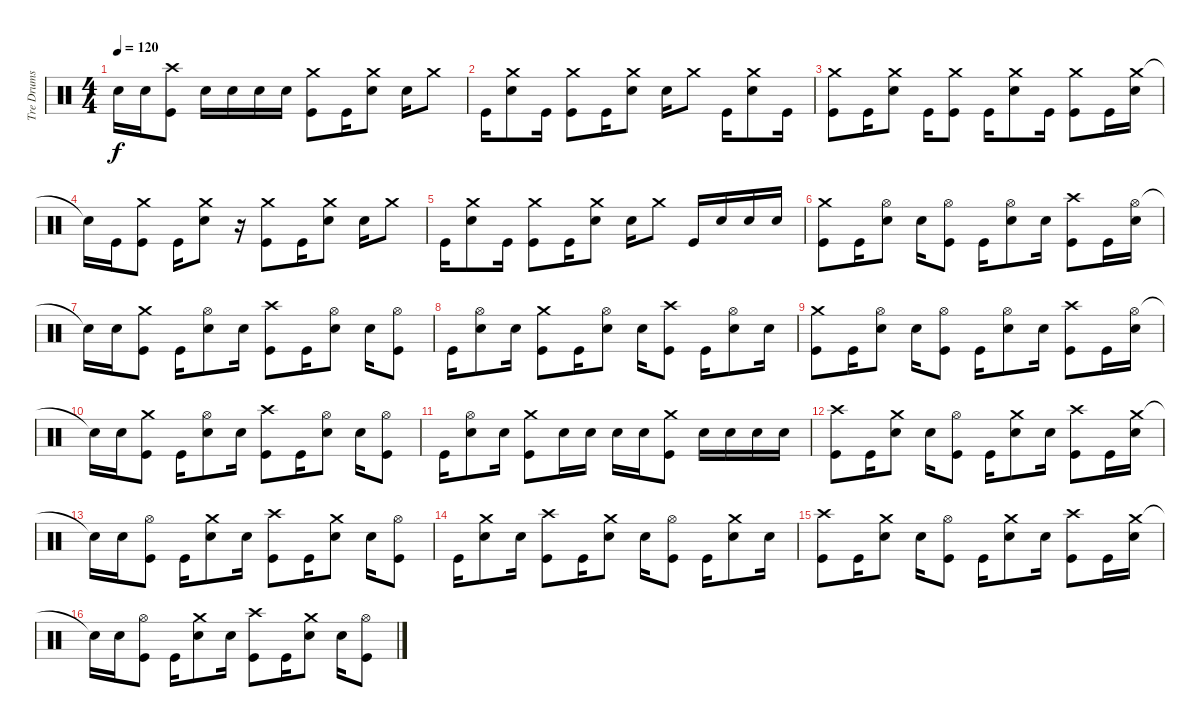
\track ("Tre Drums" "Tre Drums") {instrument percussion}
\staff {score}
\articulation defaults
\ts (4 4)
\tempo 120
\clef neutral
\ks c "Snare (hit)"{t}.16{dy f} "Electric Snare (hit)".16
("Crash high (hit)" "Kick (hit)").8 "Electric Snare (hit)".16 "Electric Snare (hit)".16 "Electric Snare (hit)".16 "Electric Snare (hit)".16 ("Crash medium (hit)" "Kick (hit)").8 "Kick (hit)".16 ("Crash medium (hit)" "Electric Snare (hit)").8 "Electric Snare (hit)".16 "Crash medium (hit)".8 |
"Kick (hit)".16 ("Crash medium (hit)" "Electric Snare (hit)").8 "Kick (hit)".16 ("Crash medium (hit)" "Kick (hit)").8 "Kick (hit)".16 ("Crash medium (hit)" "Electric Snare (hit)").8 "Electric Snare (hit)".16 "Crash medium (hit)".8 "Kick (hit)".16 ("Crash medium (hit)" "Electric Snare (hit)").8 "Kick (hit)".16 |
("Crash medium (hit)" "Kick (hit)").8 "Kick (hit)".16 ("Crash medium (hit)" "Electric Snare (hit)").8 "Kick (hit)".16 ("Crash medium (hit)" "Kick (hit)").8 "Kick (hit)".16 ("Crash medium (hit)" "Electric Snare (hit)").8 "Kick (hit)".16 ("Crash medium (hit)" "Kick (hit)").8 "Kick (hit)".16 ("Crash medium (hit)" "Electric Snare (hit)").16 |
"Snare (hit)"{t}.16 "Kick (hit)".16 ("Crash medium (hit)" "Kick (hit)").8 "Kick (hit)".16 ("Crash medium (hit)" "Electric Snare (hit)").8 r.16 ("Crash medium (hit)" "Kick (hit)").8 "Kick (hit)".16 ("Crash medium (hit)" "Electric Snare (hit)").8 "Electric Snare (hit)".16 "Crash medium (hit)".8 |
"Kick (hit)".16 ("Crash medium (hit)" "Electric Snare (hit)").8 "Kick (hit)".16 ("Crash medium (hit)" "Kick (hit)").8 "Kick (hit)".16 ("Crash medium (hit)" "Electric Snare (hit)").8 "Electric Snare (hit)".16 "Crash medium (hit)".8 "Kick (hit)".16 "Electric Snare (hit)".16 "Electric Snare (hit)".16 "Electric Snare (hit)".16 |
("Crash medium (hit)" "Kick (hit)").8 "Kick (hit)".16 ("Hi-Hat (open)" "Electric Snare (hit)").8 "Electric Snare (hit)".16 ("Hi-Hat (open)" "Kick (hit)").8 "Kick (hit)".16 ("Hi-Hat (open)" "Electric Snare (hit)").8 "Electric Snare (hit)".16 ("Crash high (hit)" "Kick (hit)").8 "Kick (hit)".16 ("Hi-Hat (open)" "Electric Snare (hit)").16 |
"Snare (hit)"{t}.16 "Electric Snare (hit)".16 ("Crash medium (hit)" "Kick (hit)").8 "Kick (hit)".16 ("Hi-Hat (open)" "Electric Snare (hit)").8 "Electric Snare (hit)".16 ("Crash high (hit)" "Kick (hit)").8 "Kick (hit)".16 ("Hi-Hat (open)" "Electric Snare (hit)").8 "Electric Snare (hit)".16 ("Hi-Hat (open)" "Kick (hit)").8 |
"Kick (hit)".16 ("Hi-Hat (open)" "Electric Snare (hit)").8 "Electric Snare (hit)".16 ("Crash medium (hit)" "Kick (hit)").8 "Kick (hit)".16 ("Hi-Hat (open)" "Electric Snare (hit)").8 "Electric Snare (hit)".16 ("Crash high (hit)" "Kick (hit)").8 "Kick (hit)".16 ("Hi-Hat (open)" "Electric Snare (hit)").8 "Electric Snare (hit)".16 |
("Crash medium (hit)" "Kick (hit)").8 "Kick (hit)".16 ("Hi-Hat (open)" "Electric Snare (hit)").8 "Electric Snare (hit)".16 ("Hi-Hat (open)" "Kick (hit)").8 "Kick (hit)".16 ("Hi-Hat (open)" "Electric Snare (hit)").8 "Electric Snare (hit)".16 ("Crash high (hit)" "Kick (hit)").8 "Kick (hit)".16 ("Hi-Hat (open)" "Electric Snare (hit)").16 |
"Snare (hit)"{t}.16 "Electric Snare (hit)".16 ("Crash medium (hit)" "Kick (hit)").8 "Kick (hit)".16 ("Hi-Hat (open)" "Electric Snare (hit)").8 "Electric Snare (hit)".16 ("Crash high (hit)" "Kick (hit)").8 "Kick (hit)".16 ("Hi-Hat (open)" "Electric Snare (hit)").8 "Electric Snare (hit)".16 ("Hi-Hat (open)" "Kick (hit)").8 |
"Kick (hit)".16 ("Hi-Hat (open)" "Electric Snare (hit)").8 "Electric Snare (hit)".16 ("Crash medium (hit)" "Kick (hit)").8 "Electric Snare (hit)".16 "Electric Snare (hit)".16 "Electric Snare (hit)".16 "Electric Snare (hit)".16 ("Crash medium (hit)" "Kick (hit)").8 "Electric Snare (hit)".16 "Electric Snare (hit)".16 "Electric Snare (hit)".16 "Electric Snare (hit)".16 |
("Crash high (hit)" "Kick (hit)").8 "Kick (hit)".16 ("Crash medium (hit)" "Electric Snare (hit)").8 "Electric Snare (hit)".16 ("Hi-Hat (open)" "Kick (hit)").8 "Kick (hit)".16 ("Crash medium (hit)" "Electric Snare (hit)").8 "Electric Snare (hit)".16 ("Crash high (hit)" "Kick (hit)").8 "Kick (hit)".16 ("Crash medium (hit)" "Electric Snare (hit)").16 |
"Snare (hit)"{t}.16 "Electric Snare (hit)".16 ("Hi-Hat (open)" "Kick (hit)").8 "Kick (hit)".16 ("Crash medium (hit)" "Electric Snare (hit)").8 "Electric Snare (hit)".16 ("Crash high (hit)" "Kick (hit)").8 "Kick (hit)".16 ("Crash medium (hit)" "Electric Snare (hit)").8 "Electric Snare (hit)".16 ("Hi-Hat (open)" "Kick (hit)").8 |
"Kick (hit)".16 ("Crash medium (hit)" "Electric Snare (hit)").8 "Electric Snare (hit)".16 ("Crash high (hit)" "Kick (hit)").8 "Kick (hit)".16 ("Crash medium (hit)" "Electric Snare (hit)").8 "Electric Snare (hit)".16 ("Hi-Hat (open)" "Kick (hit)").8 "Kick (hit)".16 ("Crash medium (hit)" "Electric Snare (hit)").8 "Electric Snare (hit)".16 |
("Crash high (hit)" "Kick (hit)").8 "Kick (hit)".16 ("Crash medium (hit)" "Electric Snare (hit)").8 "Electric Snare (hit)".16 ("Hi-Hat (open)" "Kick (hit)").8 "Kick (hit)".16 ("Crash medium (hit)" "Electric Snare (hit)").8 "Electric Snare (hit)".16 ("Crash high (hit)" "Kick (hit)").8 "Kick (hit)".16 ("Crash medium (hit)" "Electric Snare (hit)").16 |
"Snare (hit)"{t}.16 "Electric Snare (hit)".16 ("Hi-Hat (open)" "Kick (hit)").8 "Kick (hit)".16 ("Crash medium (hit)" "Electric Snare (hit)").8 "Electric Snare (hit)".16 ("Crash high (hit)" "Kick (hit)").8 "Kick (hit)".16 ("Crash medium (hit)" "Electric Snare (hit)").8 "Electric Snare (hit)".16 ("Hi-Hat (open)" "Kick (hit)").8
